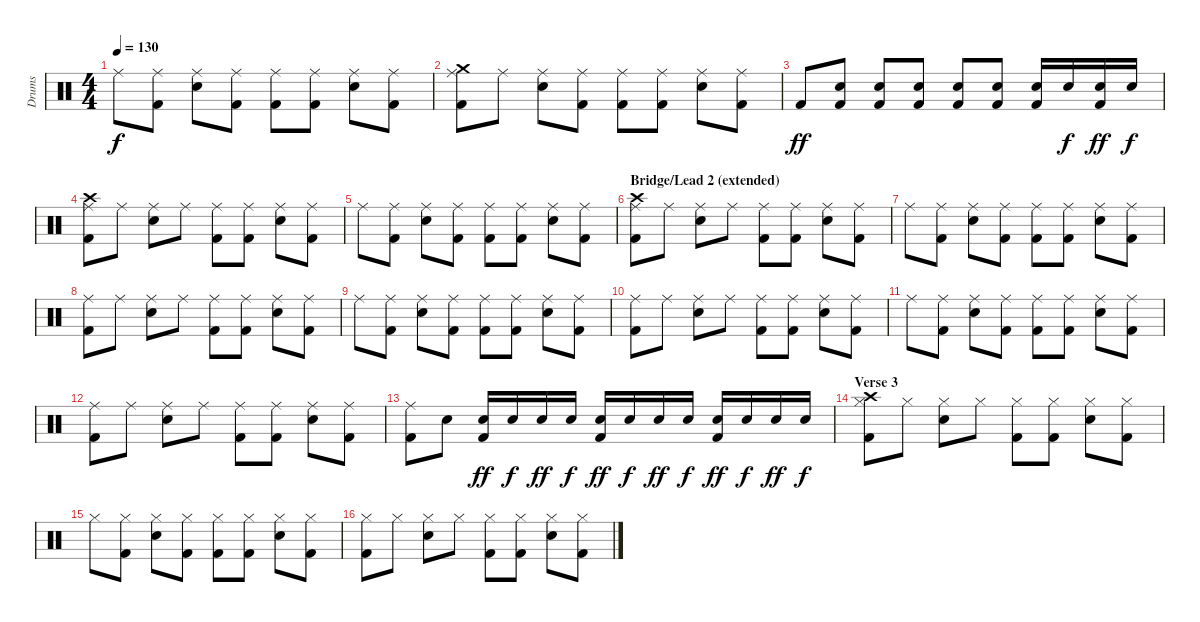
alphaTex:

\track ("Drums" "Drums") {instrument percussion}
\staff {score}
\articulation defaults
\ts (4 4)
\tempo 130
\clef neutral
\ks c "Ride (middle)".8{dy f}
("Ride (middle)" "Kick (hit) 2").8 ("Ride (middle)" "Electric Snare (hit)").8 ("Ride (middle)" "Kick (hit) 2").8 ("Ride (middle)" "Kick (hit) 2").8 ("Ride (middle)" "Kick (hit) 2").8 ("Ride (middle)" "Electric Snare (hit)").8 ("Ride (middle)" "Kick (hit) 2").8 |
("Ride (middle)" "Crash medium (hit)" "Kick (hit) 2").8 "Ride (middle)".8 ("Ride (middle)" "Electric Snare (hit)").8 ("Ride (middle)" "Kick (hit) 2").8 ("Ride (middle)" "Kick (hit) 2").8 ("Ride (middle)" "Kick (hit) 2").8 ("Ride (middle)" "Electric Snare (hit)").8 ("Ride (middle)" "Kick (hit) 2").8 |
"Kick (hit) 2".8{dy ff} ("Electric Snare (hit)" "Kick (hit) 2").8 ("Electric Snare (hit)" "Kick (hit) 2").8 ("Electric Snare (hit)" "Kick (hit) 2").8 ("Electric Snare (hit)" "Kick (hit) 2").8 ("Electric Snare (hit)" "Kick (hit) 2").8 ("Electric Snare (hit)" "Kick (hit) 2").16 "Electric Snare (hit)".16{dy f} ("Electric Snare (hit)" "Kick (hit) 2").16{dy ff} "Electric Snare (hit)".16{dy f} |
("Ride (middle)" "Crash high (hit)" "Kick (hit) 2").8 "Ride (middle)".8 ("Ride (middle)" "Electric Snare (hit)").8 "Ride (middle)".8 ("Ride (middle)" "Kick (hit) 2").8 ("Ride (middle)" "Kick (hit) 2").8 ("Ride (middle)" "Electric Snare (hit)").8 ("Ride (middle)" "Kick (hit) 2").8 |
"Ride (middle)".8 ("Ride (middle)" "Kick (hit) 2").8 ("Ride (middle)" "Electric Snare (hit)").8 ("Ride (middle)" "Kick (hit) 2").8 ("Ride (middle)" "Kick (hit) 2").8 ("Ride (middle)" "Kick (hit) 2").8 ("Ride (middle)" "Electric Snare (hit)").8 ("Ride (middle)" "Kick (hit) 2").8 |
\section ("" "Bridge/Lead 2 (extended)")
("Ride (middle)" "Crash high (hit)" "Kick (hit) 2").8 "Ride (middle)".8 ("Ride (middle)" "Electric Snare (hit)").8 "Ride (middle)".8 ("Ride (middle)" "Kick (hit) 2").8 ("Ride (middle)" "Kick (hit) 2").8 ("Ride (middle)" "Electric Snare (hit)").8 ("Ride (middle)" "Kick (hit) 2").8 |
"Ride (middle)".8 ("Ride (middle)" "Kick (hit) 2").8 ("Ride (middle)" "Electric Snare (hit)").8 ("Ride (middle)" "Kick (hit) 2").8 ("Ride (middle)" "Kick (hit) 2").8 ("Ride (middle)" "Kick (hit) 2").8 ("Ride (middle)" "Electric Snare (hit)").8 ("Ride (middle)" "Kick (hit) 2").8 |
("Ride (middle)" "Kick (hit) 2").8 "Ride (middle)".8 ("Ride (middle)" "Electric Snare (hit)").8 "Ride (middle)".8 ("Ride (middle)" "Kick (hit) 2").8 ("Ride (middle)" "Kick (hit) 2").8 ("Ride (middle)" "Electric Snare (hit)").8 ("Ride (middle)" "Kick (hit) 2").8 |
"Ride (middle)".8 ("Ride (middle)" "Kick (hit) 2").8 ("Ride (middle)" "Electric Snare (hit)").8 ("Ride (middle)" "Kick (hit) 2").8 ("Ride (middle)" "Kick (hit) 2").8 ("Ride (middle)" "Kick (hit) 2").8 ("Ride (middle)" "Electric Snare (hit)").8 ("Ride (middle)" "Kick (hit) 2").8 |
("Ride (middle)" "Kick (hit) 2").8 "Ride (middle)".8 ("Ride (middle)" "Electric Snare (hit)").8 "Ride (middle)".8 ("Ride (middle)" "Kick (hit) 2").8 ("Ride (middle)" "Kick (hit) 2").8 ("Ride (middle)" "Electric Snare (hit)").8 ("Ride (middle)" "Kick (hit) 2").8 |
"Ride (middle)".8 ("Ride (middle)" "Kick (hit) 2").8 ("Ride (middle)" "Electric Snare (hit)").8 ("Ride (middle)" "Kick (hit) 2").8 ("Ride (middle)" "Kick (hit) 2").8 ("Ride (middle)" "Kick (hit) 2").8 ("Ride (middle)" "Electric Snare (hit)").8 ("Ride (middle)" "Kick (hit) 2").8 |
("Ride (middle)" "Kick (hit) 2").8 "Ride (middle)".8 ("Ride (middle)" "Electric Snare (hit)").8 "Ride (middle)".8 ("Ride (middle)" "Kick (hit) 2").8 ("Ride (middle)" "Kick (hit) 2").8 ("Ride (middle)" "Electric Snare (hit)").8 ("Ride (middle)" "Kick (hit) 2").8 |
("Ride (middle)" "Kick (hit) 2").8 "Electric Snare (hit)".8 ("Electric Snare (hit)" "Kick (hit) 2").16{dy ff} "Electric Snare (hit)".16{dy f} "Electric Snare (hit)".16{dy ff} "Electric Snare (hit)".16{dy f} ("Electric Snare (hit)" "Kick (hit) 2").16{dy ff} "Electric Snare (hit)".16{dy f} "Electric Snare (hit)".16{dy ff} "Electric Snare (hit)".16{dy f} ("Electric Snare (hit)" "Kick (hit) 2").16{dy ff} "Electric Snare (hit)".16{dy f} "Electric Snare (hit)".16{dy ff} "Electric Snare (hit)".16{dy f} |
\section ("" "Verse 3")
("Hi-Hat (closed)" "Crash high (hit)" "Kick (hit) 2").8 "Hi-Hat (closed)".8 ("Hi-Hat (closed)" "Electric Snare (hit)").8 "Hi-Hat (closed)".8 ("Hi-Hat (closed)" "Kick (hit) 2").8 ("Hi-Hat (closed)" "Kick (hit) 2").8 ("Hi-Hat (closed)" "Electric Snare (hit)").8 ("Hi-Hat (closed)" "Kick (hit) 2").8 |
"Hi-Hat (closed)".8 ("Hi-Hat (closed)" "Kick (hit) 2").8 ("Hi-Hat (closed)" "Electric Snare (hit)").8 ("Hi-Hat (closed)" "Kick (hit) 2").8 ("Hi-Hat (closed)" "Kick (hit) 2").8 ("Hi-Hat (closed)" "Kick (hit) 2").8 ("Hi-Hat (closed)" "Electric Snare (hit)").8 ("Hi-Hat (closed)" "Kick (hit) 2").8 |
("Hi-Hat (closed)" "Kick (hit) 2").8 "Hi-Hat (closed)".8 ("Hi-Hat (closed)" "Electric Snare (hit)").8 "Hi-Hat (closed)".8 ("Hi-Hat (closed)" "Kick (hit) 2").8 ("Hi-Hat (closed)" "Kick (hit) 2").8 ("Hi-Hat (closed)" "Electric Snare (hit)").8 ("Hi-Hat (closed)" "Kick (hit) 2").8
